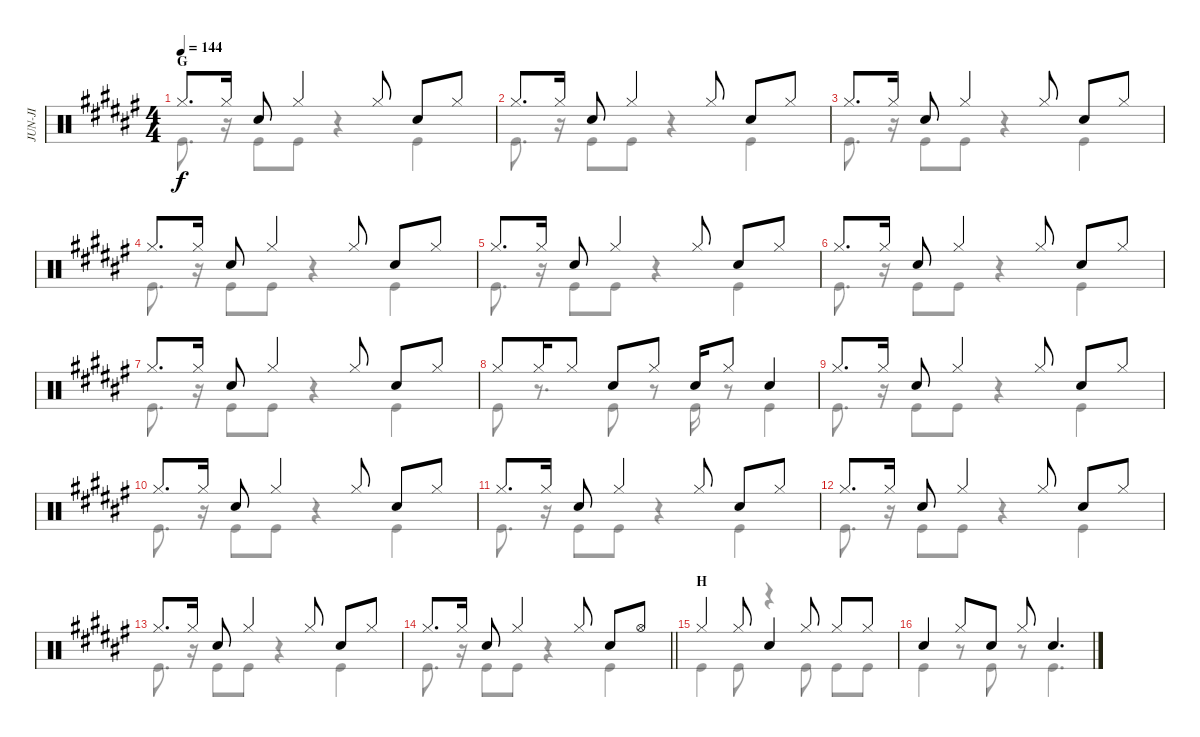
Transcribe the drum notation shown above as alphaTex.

\track ("JUN-JI" "JUN-JI") {instrument percussion}
\staff {score}
\articulation defaults
\voice
\ts (4 4)
\section ("" "G")
\tempo 144
\clef neutral
\ks d#minor "Hi-Hat (closed)".8{d dy f} "Hi-Hat (closed)".16 "Snare (hit) 2".8 "Hi-Hat (closed)".4 "Hi-Hat (closed)".8 "Snare (hit) 2".8 "Hi-Hat (closed)".8
|
"Hi-Hat (closed)".8{d} "Hi-Hat (closed)".16 "Snare (hit) 2".8 "Hi-Hat (closed)".4 "Hi-Hat (closed)".8 "Snare (hit) 2".8 "Hi-Hat (closed)".8 |
"Hi-Hat (closed)".8{d} "Hi-Hat (closed)".16 "Snare (hit) 2".8 "Hi-Hat (closed)".4 "Hi-Hat (closed)".8 "Snare (hit) 2".8 "Hi-Hat (closed)".8 |
"Hi-Hat (closed)".8{d} "Hi-Hat (closed)".16 "Snare (hit) 2".8 "Hi-Hat (closed)".4 "Hi-Hat (closed)".8 "Snare (hit) 2".8 "Hi-Hat (closed)".8 |
"Hi-Hat (closed)".8{d} "Hi-Hat (closed)".16 "Snare (hit) 2".8 "Hi-Hat (closed)".4 "Hi-Hat (closed)".8 "Snare (hit) 2".8 "Hi-Hat (closed)".8 |
"Hi-Hat (closed)".8{d} "Hi-Hat (closed)".16 "Snare (hit) 2".8 "Hi-Hat (closed)".4 "Hi-Hat (closed)".8 "Snare (hit) 2".8 "Hi-Hat (closed)".8 |
"Hi-Hat (closed)".8{d} "Hi-Hat (closed)".16 "Snare (hit) 2".8 "Hi-Hat (closed)".4 "Hi-Hat (closed)".8 "Snare (hit) 2".8 "Hi-Hat (closed)".8 |
"Hi-Hat (closed)".8 "Hi-Hat (closed)".16 "Hi-Hat (closed)".8 "Snare (hit) 2".8 "Hi-Hat (closed)".8 "Snare (hit) 2".16 "Hi-Hat (closed)".8 "Snare (hit) 2".4 |
"Hi-Hat (closed)".8{d} "Hi-Hat (closed)".16 "Snare (hit) 2".8 "Hi-Hat (closed)".4 "Hi-Hat (closed)".8 "Snare (hit) 2".8 "Hi-Hat (closed)".8 |
"Hi-Hat (closed)".8{d} "Hi-Hat (closed)".16 "Snare (hit) 2".8 "Hi-Hat (closed)".4 "Hi-Hat (closed)".8 "Snare (hit) 2".8 "Hi-Hat (closed)".8 |
"Hi-Hat (closed)".8{d} "Hi-Hat (closed)".16 "Snare (hit) 2".8 "Hi-Hat (closed)".4 "Hi-Hat (closed)".8 "Snare (hit) 2".8 "Hi-Hat (closed)".8 |
"Hi-Hat (closed)".8{d} "Hi-Hat (closed)".16 "Snare (hit) 2".8 "Hi-Hat (closed)".4 "Hi-Hat (closed)".8 "Snare (hit) 2".8 "Hi-Hat (closed)".8 |
"Hi-Hat (closed)".8{d} "Hi-Hat (closed)".16 "Snare (hit) 2".8 "Hi-Hat (closed)".4 "Hi-Hat (closed)".8 "Snare (hit) 2".8 "Hi-Hat (closed)".8 |
\barLineRight lightlight "Hi-Hat (closed)".8{d} "Hi-Hat (closed)".16 "Snare (hit) 2".8 "Hi-Hat (closed)".4 "Hi-Hat (closed)".8 "Snare (hit) 2".8 "Hi-Hat (open)".8
|
\section ("" "H")
"Hi-Hat (closed)".4 "Hi-Hat (closed)".8 "Snare (hit) 2".4 "Hi-Hat (closed)".8 "Hi-Hat (closed)".8 "Hi-Hat (closed)".8 |
"Snare (hit) 2".4 "Hi-Hat (closed)".8 "Snare (hit) 2".8 "Hi-Hat (closed)".8 "Snare (hit) 2".4{d}
\voice
\clef neutral
\ottava regular
\simile none
\ks d#minor "Kick (hit)".8{d dy f}
r.16 "Kick (hit)".8 "Kick (hit)".8 r.4 "Kick (hit)".4 |
"Kick (hit)".8{d} r.16 "Kick (hit)".8 "Kick (hit)".8 r.4 "Kick (hit)".4 |
"Kick (hit)".8{d} r.16 "Kick (hit)".8 "Kick (hit)".8 r.4 "Kick (hit)".4 |
"Kick (hit)".8{d} r.16 "Kick (hit)".8 "Kick (hit)".8 r.4 "Kick (hit)".4 |
"Kick (hit)".8{d} r.16 "Kick (hit)".8 "Kick (hit)".8 r.4 "Kick (hit)".4 |
"Kick (hit)".8{d} r.16 "Kick (hit)".8 "Kick (hit)".8 r.4 "Kick (hit)".4 |
"Kick (hit)".8{d} r.16 "Kick (hit)".8 "Kick (hit)".8 r.4 "Kick (hit)".4 |
"Kick (hit)".8 r.8{d} "Kick (hit)".8 r.8 "Kick (hit)".16 r.8 "Kick (hit)".4 |
"Kick (hit)".8{d} r.16 "Kick (hit)".8 "Kick (hit)".8 r.4 "Kick (hit)".4 |
"Kick (hit)".8{d} r.16 "Kick (hit)".8 "Kick (hit)".8 r.4 "Kick (hit)".4 |
"Kick (hit)".8{d} r.16 "Kick (hit)".8 "Kick (hit)".8 r.4 "Kick (hit)".4 |
"Kick (hit)".8{d} r.16 "Kick (hit)".8 "Kick (hit)".8 r.4 "Kick (hit)".4 |
"Kick (hit)".8{d} r.16 "Kick (hit)".8 "Kick (hit)".8 r.4 "Kick (hit)".4 |
\barLineRight lightlight "Kick (hit)".8{d}
r.16 "Kick (hit)".8 "Kick (hit)".8 r.4 "Kick (hit)".4 |
"Kick (hit)".4 "Kick (hit)".8 r.4 "Kick (hit)".8 "Kick (hit)".8 "Kick (hit)".8 |
"Kick (hit)".4 r.8 "Kick (hit)".8 r.8 "Kick (hit)".4{d}
